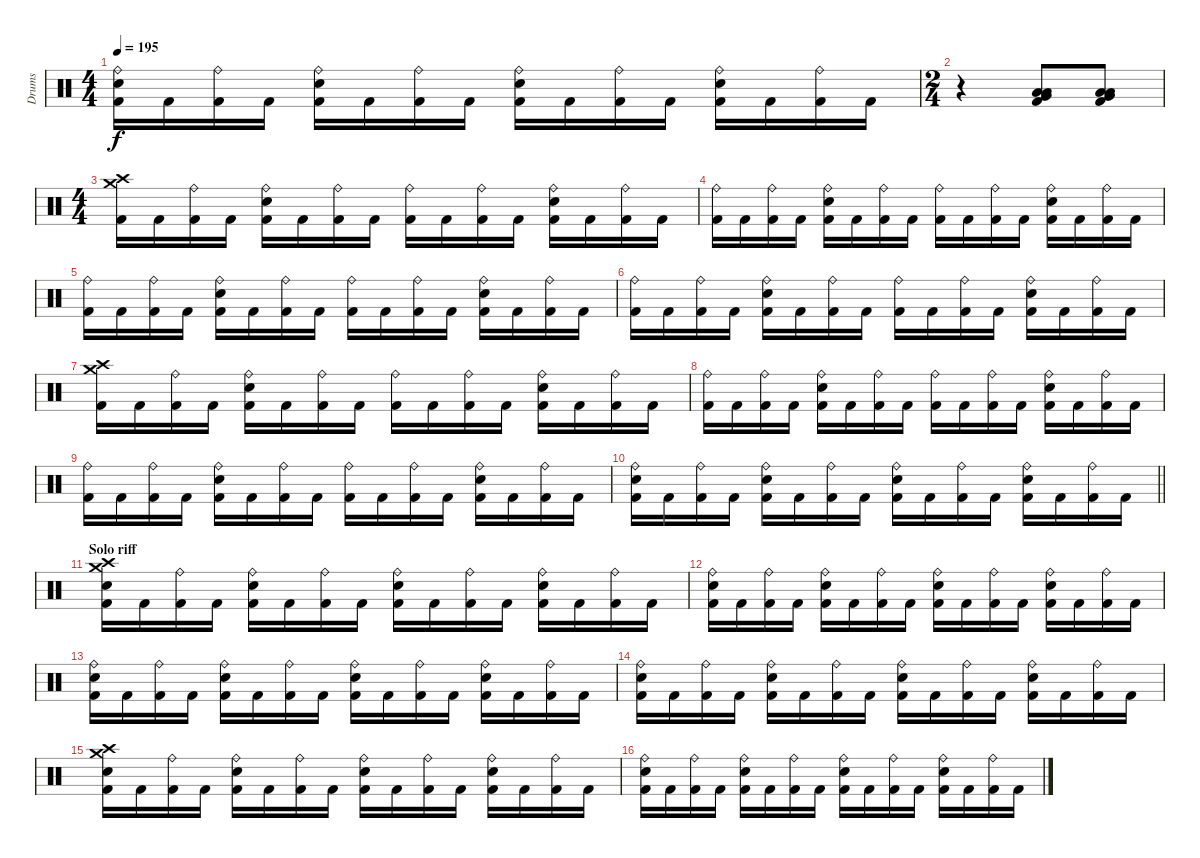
\track ("Drums" "Drums") {instrument percussion}
\staff {score}
\articulation defaults
\ts (4 4)
\tempo 195
\clef neutral
\ks c
("Ride (bell)" "Snare (hit) 2" "Kick (hit) 2").16{dy f} "Kick (hit) 2".16 ("Ride (bell)" "Kick (hit) 2").16 "Kick (hit) 2".16 ("Ride (bell)" "Snare (hit) 2" "Kick (hit) 2").16 "Kick (hit) 2".16 ("Ride (bell)" "Kick (hit) 2").16 "Kick (hit) 2".16 ("Ride (bell)" "Snare (hit) 2" "Kick (hit) 2").16 "Kick (hit) 2".16 ("Ride (bell)" "Kick (hit) 2").16 "Kick (hit) 2".16 ("Ride (bell)" "Snare (hit) 2" "Kick (hit) 2").16 "Kick (hit) 2".16 ("Ride (bell)" "Kick (hit) 2").16 "Kick (hit) 2".16 |
\ts (2 4)
r.4 ("Low Tom (hit)" "Low Floor Tom (hit)" "Very Low Tom (hit)" "Kick (hit) 2").8 ("Low Tom (hit)" "Low Floor Tom (hit)" "Very Low Tom (hit)" "Kick (hit) 2").8 |
\ts (4 4)
("Crash high (hit)" "Crash medium (hit)" "Kick (hit) 2").16 "Kick (hit) 2".16 ("Ride (bell)" "Kick (hit) 2").16 "Kick (hit) 2".16 ("Ride (bell)" "Snare (hit) 2" "Kick (hit) 2").16 "Kick (hit) 2".16 ("Ride (bell)" "Kick (hit) 2").16 "Kick (hit) 2".16 ("Ride (bell)" "Kick (hit) 2").16 "Kick (hit) 2".16 ("Ride (bell)" "Kick (hit) 2").16 "Kick (hit) 2".16 ("Ride (bell)" "Snare (hit) 2" "Kick (hit) 2").16 "Kick (hit) 2".16 ("Ride (bell)" "Kick (hit) 2").16 "Kick (hit) 2".16 |
("Ride (bell)" "Kick (hit) 2").16 "Kick (hit) 2".16 ("Ride (bell)" "Kick (hit) 2").16 "Kick (hit) 2".16 ("Ride (bell)" "Snare (hit) 2" "Kick (hit) 2").16 "Kick (hit) 2".16 ("Ride (bell)" "Kick (hit) 2").16 "Kick (hit) 2".16 ("Ride (bell)" "Kick (hit) 2").16 "Kick (hit) 2".16 ("Ride (bell)" "Kick (hit) 2").16 "Kick (hit) 2".16 ("Ride (bell)" "Snare (hit) 2" "Kick (hit) 2").16 "Kick (hit) 2".16 ("Ride (bell)" "Kick (hit) 2").16 "Kick (hit) 2".16 |
("Ride (bell)" "Kick (hit) 2").16 "Kick (hit) 2".16 ("Ride (bell)" "Kick (hit) 2").16 "Kick (hit) 2".16 ("Ride (bell)" "Snare (hit) 2" "Kick (hit) 2").16 "Kick (hit) 2".16 ("Ride (bell)" "Kick (hit) 2").16 "Kick (hit) 2".16 ("Ride (bell)" "Kick (hit) 2").16 "Kick (hit) 2".16 ("Ride (bell)" "Kick (hit) 2").16 "Kick (hit) 2".16 ("Ride (bell)" "Snare (hit) 2" "Kick (hit) 2").16 "Kick (hit) 2".16 ("Ride (bell)" "Kick (hit) 2").16 "Kick (hit) 2".16 |
("Ride (bell)" "Kick (hit) 2").16 "Kick (hit) 2".16 ("Ride (bell)" "Kick (hit) 2").16 "Kick (hit) 2".16 ("Ride (bell)" "Snare (hit) 2" "Kick (hit) 2").16 "Kick (hit) 2".16 ("Ride (bell)" "Kick (hit) 2").16 "Kick (hit) 2".16 ("Ride (bell)" "Kick (hit) 2").16 "Kick (hit) 2".16 ("Ride (bell)" "Kick (hit) 2").16 "Kick (hit) 2".16 ("Ride (bell)" "Snare (hit) 2" "Kick (hit) 2").16 "Kick (hit) 2".16 ("Ride (bell)" "Kick (hit) 2").16 "Kick (hit) 2".16 |
("Crash high (hit)" "Crash medium (hit)" "Kick (hit) 2").16 "Kick (hit) 2".16 ("Ride (bell)" "Kick (hit) 2").16 "Kick (hit) 2".16 ("Ride (bell)" "Snare (hit) 2" "Kick (hit) 2").16 "Kick (hit) 2".16 ("Ride (bell)" "Kick (hit) 2").16 "Kick (hit) 2".16 ("Ride (bell)" "Kick (hit) 2").16 "Kick (hit) 2".16 ("Ride (bell)" "Kick (hit) 2").16 "Kick (hit) 2".16 ("Ride (bell)" "Snare (hit) 2" "Kick (hit) 2").16 "Kick (hit) 2".16 ("Ride (bell)" "Kick (hit) 2").16 "Kick (hit) 2".16 |
("Ride (bell)" "Kick (hit) 2").16 "Kick (hit) 2".16 ("Ride (bell)" "Kick (hit) 2").16 "Kick (hit) 2".16 ("Ride (bell)" "Snare (hit) 2" "Kick (hit) 2").16 "Kick (hit) 2".16 ("Ride (bell)" "Kick (hit) 2").16 "Kick (hit) 2".16 ("Ride (bell)" "Kick (hit) 2").16 "Kick (hit) 2".16 ("Ride (bell)" "Kick (hit) 2").16 "Kick (hit) 2".16 ("Ride (bell)" "Snare (hit) 2" "Kick (hit) 2").16 "Kick (hit) 2".16 ("Ride (bell)" "Kick (hit) 2").16 "Kick (hit) 2".16 |
("Ride (bell)" "Kick (hit) 2").16 "Kick (hit) 2".16 ("Ride (bell)" "Kick (hit) 2").16 "Kick (hit) 2".16 ("Ride (bell)" "Snare (hit) 2" "Kick (hit) 2").16 "Kick (hit) 2".16 ("Ride (bell)" "Kick (hit) 2").16 "Kick (hit) 2".16 ("Ride (bell)" "Kick (hit) 2").16 "Kick (hit) 2".16 ("Ride (bell)" "Kick (hit) 2").16 "Kick (hit) 2".16 ("Ride (bell)" "Snare (hit) 2" "Kick (hit) 2").16 "Kick (hit) 2".16 ("Ride (bell)" "Kick (hit) 2").16 "Kick (hit) 2".16 |
\barLineRight lightlight
("Ride (bell)" "Snare (hit) 2" "Kick (hit) 2").16 "Kick (hit) 2".16 ("Ride (bell)" "Kick (hit) 2").16 "Kick (hit) 2".16 ("Ride (bell)" "Snare (hit) 2" "Kick (hit) 2").16 "Kick (hit) 2".16 ("Ride (bell)" "Kick (hit) 2").16 "Kick (hit) 2".16 ("Ride (bell)" "Snare (hit) 2" "Kick (hit) 2").16 "Kick (hit) 2".16 ("Ride (bell)" "Kick (hit) 2").16 "Kick (hit) 2".16 ("Ride (bell)" "Snare (hit) 2" "Kick (hit) 2").16 "Kick (hit) 2".16 ("Ride (bell)" "Kick (hit) 2").16 "Kick (hit) 2".16 |
\section ("" "Solo riff")
("Crash medium (hit)" "Crash high (hit)" "Snare (hit) 2" "Kick (hit) 2").16 "Kick (hit) 2".16 ("Ride (bell)" "Kick (hit) 2").16 "Kick (hit) 2".16 ("Ride (bell)" "Snare (hit) 2" "Kick (hit) 2").16 "Kick (hit) 2".16 ("Ride (bell)" "Kick (hit) 2").16 "Kick (hit) 2".16 ("Ride (bell)" "Snare (hit) 2" "Kick (hit) 2").16 "Kick (hit) 2".16 ("Ride (bell)" "Kick (hit) 2").16 "Kick (hit) 2".16 ("Ride (bell)" "Snare (hit) 2" "Kick (hit) 2").16 "Kick (hit) 2".16 ("Ride (bell)" "Kick (hit) 2").16 "Kick (hit) 2".16 |
("Ride (bell)" "Snare (hit) 2" "Kick (hit) 2").16 "Kick (hit) 2".16 ("Ride (bell)" "Kick (hit) 2").16 "Kick (hit) 2".16 ("Ride (bell)" "Snare (hit) 2" "Kick (hit) 2").16 "Kick (hit) 2".16 ("Ride (bell)" "Kick (hit) 2").16 "Kick (hit) 2".16 ("Ride (bell)" "Snare (hit) 2" "Kick (hit) 2").16 "Kick (hit) 2".16 ("Ride (bell)" "Kick (hit) 2").16 "Kick (hit) 2".16 ("Ride (bell)" "Snare (hit) 2" "Kick (hit) 2").16 "Kick (hit) 2".16 ("Ride (bell)" "Kick (hit) 2").16 "Kick (hit) 2".16 |
("Ride (bell)" "Snare (hit) 2" "Kick (hit) 2").16 "Kick (hit) 2".16 ("Ride (bell)" "Kick (hit) 2").16 "Kick (hit) 2".16 ("Ride (bell)" "Snare (hit) 2" "Kick (hit) 2").16 "Kick (hit) 2".16 ("Ride (bell)" "Kick (hit) 2").16 "Kick (hit) 2".16 ("Ride (bell)" "Snare (hit) 2" "Kick (hit) 2").16 "Kick (hit) 2".16 ("Ride (bell)" "Kick (hit) 2").16 "Kick (hit) 2".16 ("Ride (bell)" "Snare (hit) 2" "Kick (hit) 2").16 "Kick (hit) 2".16 ("Ride (bell)" "Kick (hit) 2").16 "Kick (hit) 2".16 |
("Ride (bell)" "Snare (hit) 2" "Kick (hit) 2").16 "Kick (hit) 2".16 ("Ride (bell)" "Kick (hit) 2").16 "Kick (hit) 2".16 ("Ride (bell)" "Snare (hit) 2" "Kick (hit) 2").16 "Kick (hit) 2".16 ("Ride (bell)" "Kick (hit) 2").16 "Kick (hit) 2".16 ("Ride (bell)" "Snare (hit) 2" "Kick (hit) 2").16 "Kick (hit) 2".16 ("Ride (bell)" "Kick (hit) 2").16 "Kick (hit) 2".16 ("Ride (bell)" "Snare (hit) 2" "Kick (hit) 2").16 "Kick (hit) 2".16 ("Ride (bell)" "Kick (hit) 2").16 "Kick (hit) 2".16 |
("Crash medium (hit)" "Crash high (hit)" "Snare (hit) 2" "Kick (hit) 2").16 "Kick (hit) 2".16 ("Ride (bell)" "Kick (hit) 2").16 "Kick (hit) 2".16 ("Ride (bell)" "Snare (hit) 2" "Kick (hit) 2").16 "Kick (hit) 2".16 ("Ride (bell)" "Kick (hit) 2").16 "Kick (hit) 2".16 ("Ride (bell)" "Snare (hit) 2" "Kick (hit) 2").16 "Kick (hit) 2".16 ("Ride (bell)" "Kick (hit) 2").16 "Kick (hit) 2".16 ("Ride (bell)" "Snare (hit) 2" "Kick (hit) 2").16 "Kick (hit) 2".16 ("Ride (bell)" "Kick (hit) 2").16 "Kick (hit) 2".16 |
("Ride (bell)" "Snare (hit) 2" "Kick (hit) 2").16 "Kick (hit) 2".16 ("Ride (bell)" "Kick (hit) 2").16 "Kick (hit) 2".16 ("Ride (bell)" "Snare (hit) 2" "Kick (hit) 2").16 "Kick (hit) 2".16 ("Ride (bell)" "Kick (hit) 2").16 "Kick (hit) 2".16 ("Ride (bell)" "Snare (hit) 2" "Kick (hit) 2").16 "Kick (hit) 2".16 ("Ride (bell)" "Kick (hit) 2").16 "Kick (hit) 2".16 ("Ride (bell)" "Snare (hit) 2" "Kick (hit) 2").16 "Kick (hit) 2".16 ("Ride (bell)" "Kick (hit) 2").16 "Kick (hit) 2".16
